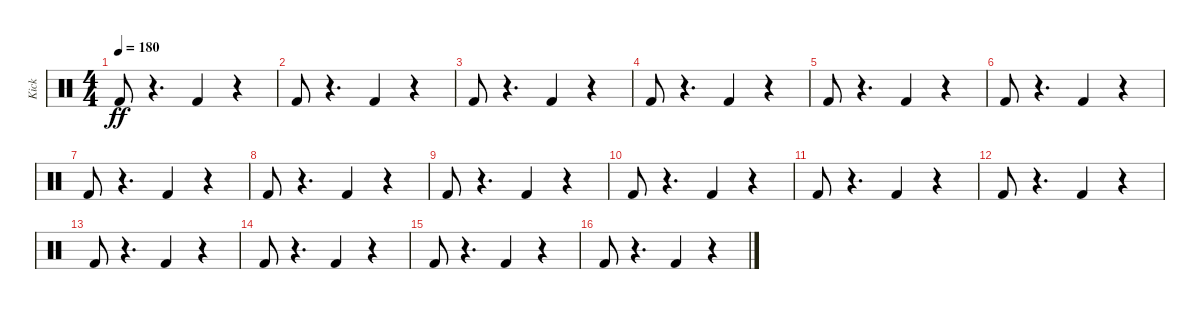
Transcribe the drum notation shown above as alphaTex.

\track ("Kick" "Kick") {instrument percussion}
\staff {score}
\articulation defaults
\ts (4 4)
\tempo 180
\clef neutral
\ks c "Kick (hit) 2".8{dy ff}
r.4{d} "Kick (hit) 2".4 r.4 |
"Kick (hit) 2".8 r.4{d} "Kick (hit) 2".4 r.4 |
"Kick (hit) 2".8 r.4{d} "Kick (hit) 2".4 r.4 |
"Kick (hit) 2".8 r.4{d} "Kick (hit) 2".4 r.4 |
"Kick (hit) 2".8 r.4{d} "Kick (hit) 2".4 r.4 |
"Kick (hit) 2".8 r.4{d} "Kick (hit) 2".4 r.4 |
"Kick (hit) 2".8 r.4{d} "Kick (hit) 2".4 r.4 |
"Kick (hit) 2".8 r.4{d} "Kick (hit) 2".4 r.4 |
"Kick (hit) 2".8 r.4{d} "Kick (hit) 2".4 r.4 |
"Kick (hit) 2".8 r.4{d} "Kick (hit) 2".4 r.4 |
"Kick (hit) 2".8 r.4{d} "Kick (hit) 2".4 r.4 |
"Kick (hit) 2".8 r.4{d} "Kick (hit) 2".4 r.4 |
"Kick (hit) 2".8 r.4{d} "Kick (hit) 2".4 r.4 |
"Kick (hit) 2".8 r.4{d} "Kick (hit) 2".4 r.4 |
"Kick (hit) 2".8 r.4{d} "Kick (hit) 2".4 r.4 |
"Kick (hit) 2".8 r.4{d} "Kick (hit) 2".4 r.4
